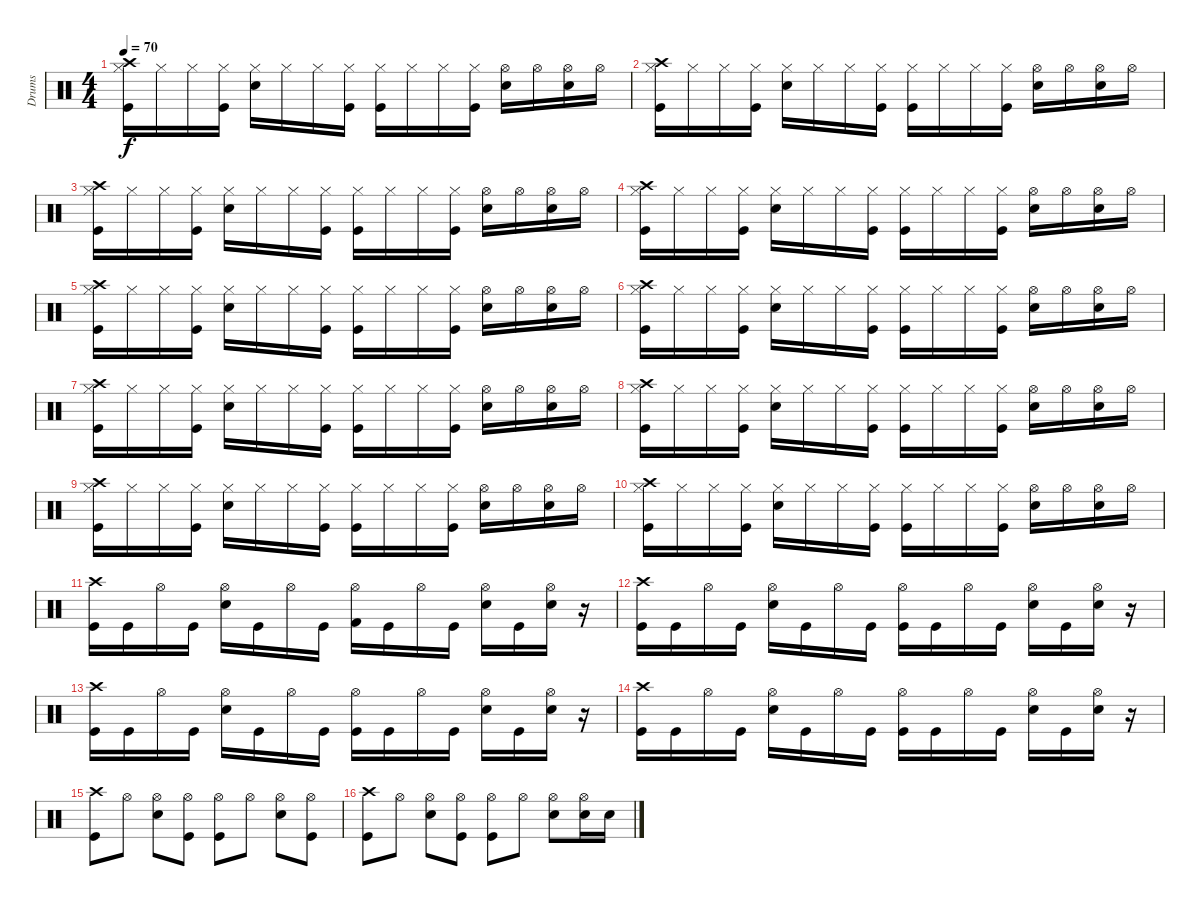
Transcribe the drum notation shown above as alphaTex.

\track ("Drums" "Drums") {instrument percussion}
\staff {score}
\articulation defaults
\ts (4 4)
\tempo 70
\clef neutral
\ks c
("Crash high (hit)" "Hi-Hat (closed)" "Kick (hit)").16{dy f} "Hi-Hat (closed)".16 "Hi-Hat (closed)".16 ("Hi-Hat (closed)" "Kick (hit)").16 ("Hi-Hat (closed)" "Electric Snare (hit)").16 "Hi-Hat (closed)".16 "Hi-Hat (closed)".16 ("Hi-Hat (closed)" "Kick (hit)").16 ("Hi-Hat (closed)" "Kick (hit)").16 "Hi-Hat (closed)".16 "Hi-Hat (closed)".16 ("Hi-Hat (closed)" "Kick (hit)").16 ("Hi-Hat (open)" "Electric Snare (hit)").16 "Hi-Hat (open)".16 ("Hi-Hat (open)" "Electric Snare (hit)").16 "Hi-Hat (open)".16 |
("Crash high (hit)" "Hi-Hat (closed)" "Kick (hit)").16 "Hi-Hat (closed)".16 "Hi-Hat (closed)".16 ("Hi-Hat (closed)" "Kick (hit)").16 ("Hi-Hat (closed)" "Electric Snare (hit)").16 "Hi-Hat (closed)".16 "Hi-Hat (closed)".16 ("Hi-Hat (closed)" "Kick (hit)").16 ("Hi-Hat (closed)" "Kick (hit)").16 "Hi-Hat (closed)".16 "Hi-Hat (closed)".16 ("Hi-Hat (closed)" "Kick (hit)").16 ("Hi-Hat (open)" "Electric Snare (hit)").16 "Hi-Hat (open)".16 ("Hi-Hat (open)" "Electric Snare (hit)").16 "Hi-Hat (open)".16 |
("Crash high (hit)" "Hi-Hat (closed)" "Kick (hit)").16 "Hi-Hat (closed)".16 "Hi-Hat (closed)".16 ("Hi-Hat (closed)" "Kick (hit)").16 ("Hi-Hat (closed)" "Electric Snare (hit)").16 "Hi-Hat (closed)".16 "Hi-Hat (closed)".16 ("Hi-Hat (closed)" "Kick (hit)").16 ("Hi-Hat (closed)" "Kick (hit)").16 "Hi-Hat (closed)".16 "Hi-Hat (closed)".16 ("Hi-Hat (closed)" "Kick (hit)").16 ("Hi-Hat (open)" "Electric Snare (hit)").16 "Hi-Hat (open)".16 ("Hi-Hat (open)" "Electric Snare (hit)").16 "Hi-Hat (open)".16 |
("Crash high (hit)" "Hi-Hat (closed)" "Kick (hit)").16 "Hi-Hat (closed)".16 "Hi-Hat (closed)".16 ("Hi-Hat (closed)" "Kick (hit)").16 ("Hi-Hat (closed)" "Electric Snare (hit)").16 "Hi-Hat (closed)".16 "Hi-Hat (closed)".16 ("Hi-Hat (closed)" "Kick (hit)").16 ("Hi-Hat (closed)" "Kick (hit)").16 "Hi-Hat (closed)".16 "Hi-Hat (closed)".16 ("Hi-Hat (closed)" "Kick (hit)").16 ("Hi-Hat (open)" "Electric Snare (hit)").16 "Hi-Hat (open)".16 ("Hi-Hat (open)" "Electric Snare (hit)").16 "Hi-Hat (open)".16 |
("Crash high (hit)" "Hi-Hat (closed)" "Kick (hit)").16 "Hi-Hat (closed)".16 "Hi-Hat (closed)".16 ("Hi-Hat (closed)" "Kick (hit)").16 ("Hi-Hat (closed)" "Electric Snare (hit)").16 "Hi-Hat (closed)".16 "Hi-Hat (closed)".16 ("Hi-Hat (closed)" "Kick (hit)").16 ("Hi-Hat (closed)" "Kick (hit)").16 "Hi-Hat (closed)".16 "Hi-Hat (closed)".16 ("Hi-Hat (closed)" "Kick (hit)").16 ("Hi-Hat (open)" "Electric Snare (hit)").16 "Hi-Hat (open)".16 ("Hi-Hat (open)" "Electric Snare (hit)").16 "Hi-Hat (open)".16 |
("Crash high (hit)" "Hi-Hat (closed)" "Kick (hit)").16 "Hi-Hat (closed)".16 "Hi-Hat (closed)".16 ("Hi-Hat (closed)" "Kick (hit)").16 ("Hi-Hat (closed)" "Electric Snare (hit)").16 "Hi-Hat (closed)".16 "Hi-Hat (closed)".16 ("Hi-Hat (closed)" "Kick (hit)").16 ("Hi-Hat (closed)" "Kick (hit)").16 "Hi-Hat (closed)".16 "Hi-Hat (closed)".16 ("Hi-Hat (closed)" "Kick (hit)").16 ("Hi-Hat (open)" "Electric Snare (hit)").16 "Hi-Hat (open)".16 ("Hi-Hat (open)" "Electric Snare (hit)").16 "Hi-Hat (open)".16 |
("Crash high (hit)" "Hi-Hat (closed)" "Kick (hit)").16 "Hi-Hat (closed)".16 "Hi-Hat (closed)".16 ("Hi-Hat (closed)" "Kick (hit)").16 ("Hi-Hat (closed)" "Electric Snare (hit)").16 "Hi-Hat (closed)".16 "Hi-Hat (closed)".16 ("Hi-Hat (closed)" "Kick (hit)").16 ("Hi-Hat (closed)" "Kick (hit)").16 "Hi-Hat (closed)".16 "Hi-Hat (closed)".16 ("Hi-Hat (closed)" "Kick (hit)").16 ("Hi-Hat (open)" "Electric Snare (hit)").16 "Hi-Hat (open)".16 ("Hi-Hat (open)" "Electric Snare (hit)").16 "Hi-Hat (open)".16 |
("Crash high (hit)" "Hi-Hat (closed)" "Kick (hit)").16 "Hi-Hat (closed)".16 "Hi-Hat (closed)".16 ("Hi-Hat (closed)" "Kick (hit)").16 ("Hi-Hat (closed)" "Electric Snare (hit)").16 "Hi-Hat (closed)".16 "Hi-Hat (closed)".16 ("Hi-Hat (closed)" "Kick (hit)").16 ("Hi-Hat (closed)" "Kick (hit)").16 "Hi-Hat (closed)".16 "Hi-Hat (closed)".16 ("Hi-Hat (closed)" "Kick (hit)").16 ("Hi-Hat (open)" "Electric Snare (hit)").16 "Hi-Hat (open)".16 ("Hi-Hat (open)" "Electric Snare (hit)").16 "Hi-Hat (open)".16 |
("Crash high (hit)" "Hi-Hat (closed)" "Kick (hit)").16 "Hi-Hat (closed)".16 "Hi-Hat (closed)".16 ("Hi-Hat (closed)" "Kick (hit)").16 ("Hi-Hat (closed)" "Electric Snare (hit)").16 "Hi-Hat (closed)".16 "Hi-Hat (closed)".16 ("Hi-Hat (closed)" "Kick (hit)").16 ("Hi-Hat (closed)" "Kick (hit)").16 "Hi-Hat (closed)".16 "Hi-Hat (closed)".16 ("Hi-Hat (closed)" "Kick (hit)").16 ("Hi-Hat (open)" "Electric Snare (hit)").16 "Hi-Hat (open)".16 ("Hi-Hat (open)" "Electric Snare (hit)").16 "Hi-Hat (open)".16 |
("Crash high (hit)" "Hi-Hat (closed)" "Kick (hit)").16 "Hi-Hat (closed)".16 "Hi-Hat (closed)".16 ("Hi-Hat (closed)" "Kick (hit)").16 ("Hi-Hat (closed)" "Electric Snare (hit)").16 "Hi-Hat (closed)".16 "Hi-Hat (closed)".16 ("Hi-Hat (closed)" "Kick (hit)").16 ("Hi-Hat (closed)" "Kick (hit)").16 "Hi-Hat (closed)".16 "Hi-Hat (closed)".16 ("Hi-Hat (closed)" "Kick (hit)").16 ("Hi-Hat (open)" "Electric Snare (hit)").16 "Hi-Hat (open)".16 ("Hi-Hat (open)" "Electric Snare (hit)").16 "Hi-Hat (open)".16 |
("Crash high (hit)" "Kick (hit)").16 "Kick (hit)".16 "Hi-Hat (open)".16 "Kick (hit)".16 ("Hi-Hat (open)" "Electric Snare (hit)").16 "Kick (hit)".16 "Hi-Hat (open)".16 "Kick (hit)".16 ("Hi-Hat (open)" "Kick (hit) 2").16 "Kick (hit)".16 "Hi-Hat (open)".16 "Kick (hit)".16 ("Hi-Hat (open)" "Electric Snare (hit)").16 "Kick (hit)".16 ("Hi-Hat (open)" "Electric Snare (hit)").16 r.16 |
("Crash high (hit)" "Kick (hit)").16 "Kick (hit)".16 "Hi-Hat (open)".16 "Kick (hit)".16 ("Hi-Hat (open)" "Electric Snare (hit)").16 "Kick (hit)".16 "Hi-Hat (open)".16 "Kick (hit)".16 ("Hi-Hat (open)" "Kick (hit)").16 "Kick (hit)".16 "Hi-Hat (open)".16 "Kick (hit)".16 ("Hi-Hat (open)" "Electric Snare (hit)").16 "Kick (hit)".16 ("Hi-Hat (open)" "Electric Snare (hit)").16 r.16 |
("Crash high (hit)" "Kick (hit)").16 "Kick (hit)".16 "Hi-Hat (open)".16 "Kick (hit)".16 ("Hi-Hat (open)" "Electric Snare (hit)").16 "Kick (hit)".16 "Hi-Hat (open)".16 "Kick (hit)".16 ("Hi-Hat (open)" "Kick (hit)").16 "Kick (hit)".16 "Hi-Hat (open)".16 "Kick (hit)".16 ("Hi-Hat (open)" "Electric Snare (hit)").16 "Kick (hit)".16 ("Hi-Hat (open)" "Electric Snare (hit)").16 r.16 |
("Crash high (hit)" "Kick (hit)").16 "Kick (hit)".16 "Hi-Hat (open)".16 "Kick (hit)".16 ("Hi-Hat (open)" "Electric Snare (hit)").16 "Kick (hit)".16 "Hi-Hat (open)".16 "Kick (hit)".16 ("Hi-Hat (open)" "Kick (hit)").16 "Kick (hit)".16 "Hi-Hat (open)".16 "Kick (hit)".16 ("Hi-Hat (open)" "Electric Snare (hit)").16 "Kick (hit)".16 ("Hi-Hat (open)" "Electric Snare (hit)").16 r.16 |
("Crash high (hit)" "Kick (hit)").8 "Hi-Hat (open)".8 ("Hi-Hat (open)" "Electric Snare (hit)").8 ("Hi-Hat (open)" "Kick (hit)").8 ("Hi-Hat (open)" "Kick (hit)").8 "Hi-Hat (open)".8 ("Hi-Hat (open)" "Electric Snare (hit)").8 ("Hi-Hat (open)" "Kick (hit)").8 |
("Crash high (hit)" "Kick (hit)").8 "Hi-Hat (open)".8 ("Hi-Hat (open)" "Electric Snare (hit)").8 ("Hi-Hat (open)" "Kick (hit)").8 ("Hi-Hat (open)" "Kick (hit)").8 "Hi-Hat (open)".8 ("Hi-Hat (open)" "Electric Snare (hit)").8 ("Hi-Hat (open)" "Electric Snare (hit)").16 "Electric Snare (hit)".16
